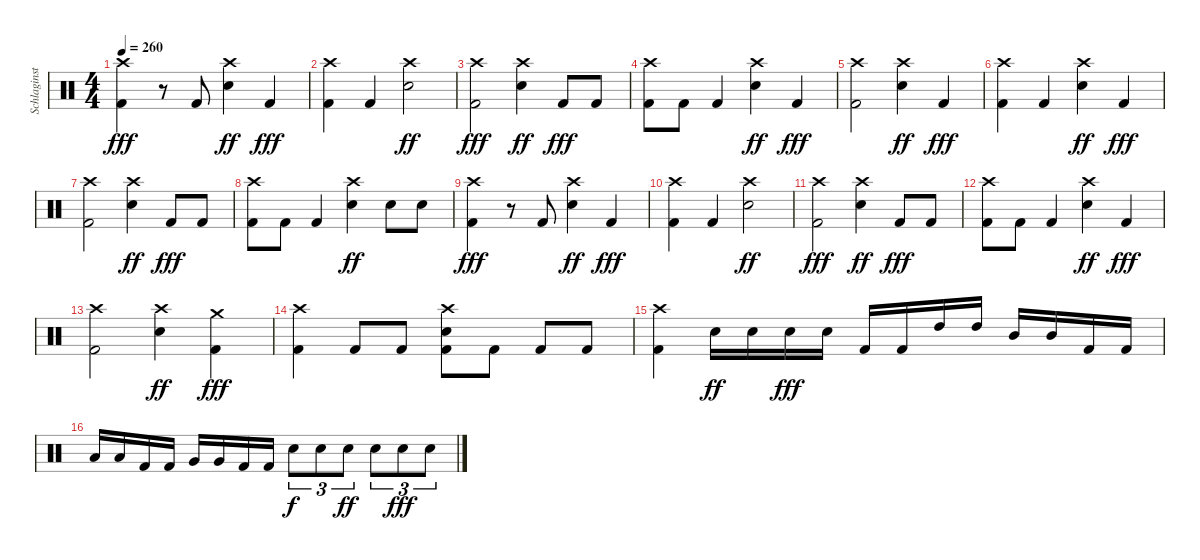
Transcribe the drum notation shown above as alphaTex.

\track ("Schlaginstrumente - Auswahl" "Schlaginst") {instrument percussion}
\staff {score}
\articulation defaults
\ts (4 4)
\tempo 260
\clef neutral
\ks c
("Crash high (hit)" "Kick (hit) 2").4{dy fff} r.8 "Kick (hit) 2".8 ("Crash high (hit)" "Snare (hit) 2").4{dy ff} "Kick (hit) 2".4{dy fff} |
("Crash high (hit)" "Kick (hit) 2").4 "Kick (hit) 2".4 ("Crash high (hit)" "Snare (hit) 2").2{dy ff} |
("Crash high (hit)" "Kick (hit) 2").2{dy fff} ("Crash high (hit)" "Snare (hit) 2").4{dy ff} "Kick (hit) 2".8{dy fff} "Kick (hit) 2".8 |
("Crash high (hit)" "Kick (hit) 2").8 "Kick (hit) 2".8 "Kick (hit) 2".4 ("Crash high (hit)" "Snare (hit) 2").4{dy ff} "Kick (hit) 2".4{dy fff} |
("Crash high (hit)" "Kick (hit) 2").2 ("Crash high (hit)" "Snare (hit) 2").4{dy ff} "Kick (hit) 2".4{dy fff} |
("Crash high (hit)" "Kick (hit) 2").4 "Kick (hit) 2".4 ("Crash high (hit)" "Snare (hit) 2").4{dy ff} "Kick (hit) 2".4{dy fff} |
("Crash high (hit)" "Kick (hit) 2").2 ("Crash high (hit)" "Snare (hit) 2").4{dy ff} "Kick (hit) 2".8{dy fff} "Kick (hit) 2".8 |
("Crash high (hit)" "Kick (hit) 2").8 "Kick (hit) 2".8 "Kick (hit) 2".4 ("Crash high (hit)" "Snare (hit) 2").4{dy ff} "Snare (hit) 2".8 "Snare (hit) 2".8 |
("Crash high (hit)" "Kick (hit) 2").4{dy fff} r.8 "Kick (hit) 2".8 ("Crash high (hit)" "Snare (hit) 2").4{dy ff} "Kick (hit) 2".4{dy fff} |
("Crash high (hit)" "Kick (hit) 2").4 "Kick (hit) 2".4 ("Crash high (hit)" "Snare (hit) 2").2{dy ff} |
("Crash high (hit)" "Kick (hit) 2").2{dy fff} ("Crash high (hit)" "Snare (hit) 2").4{dy ff} "Kick (hit) 2".8{dy fff} "Kick (hit) 2".8 |
("Crash high (hit)" "Kick (hit) 2").8 "Kick (hit) 2".8 "Kick (hit) 2".4 ("Crash high (hit)" "Snare (hit) 2").4{dy ff} "Kick (hit) 2".4{dy fff} |
("Crash high (hit)" "Kick (hit) 2").2 ("Crash high (hit)" "Snare (hit) 2").4{dy ff} ("Crash medium (hit)" "Kick (hit) 2").4{dy fff} |
("Crash high (hit)" "Kick (hit) 2").4 "Kick (hit) 2".8 "Kick (hit) 2".8 ("Crash high (hit)" "Snare (hit) 2" "Kick (hit) 2").8 "Kick (hit) 2".8 "Kick (hit) 2".8 "Kick (hit) 2".8 |
("Crash high (hit)" "Kick (hit) 2").4 "Snare (hit) 2".16{dy ff} "Snare (hit) 2".16 "Snare (hit) 2".16{dy fff} "Snare (hit) 2".16 "Kick (hit) 2".16 "Kick (hit) 2".16 "High Tom (hit)".16 "High Tom (hit)".16 "Mid Tom (hit)".16 "Mid Tom (hit)".16 "Kick (hit) 2".16 "Kick (hit) 2".16 |
"Low Tom (hit)".16 "Low Tom (hit)".16 "Kick (hit) 2".16 "Kick (hit) 2".16 "Very Low Tom (hit)".16 "Very Low Tom (hit)".16 "Kick (hit) 2".16 "Kick (hit) 2".16 "Snare (hit) 2".8{tu (3 2) dy f} "Snare (hit) 2".8{tu (3 2)} "Snare (hit) 2".8{tu (3 2) dy ff} "Snare (hit) 2".8{tu (3 2)} "Snare (hit) 2".8{tu (3 2) dy fff} "Snare (hit) 2".8{tu (3 2)}
